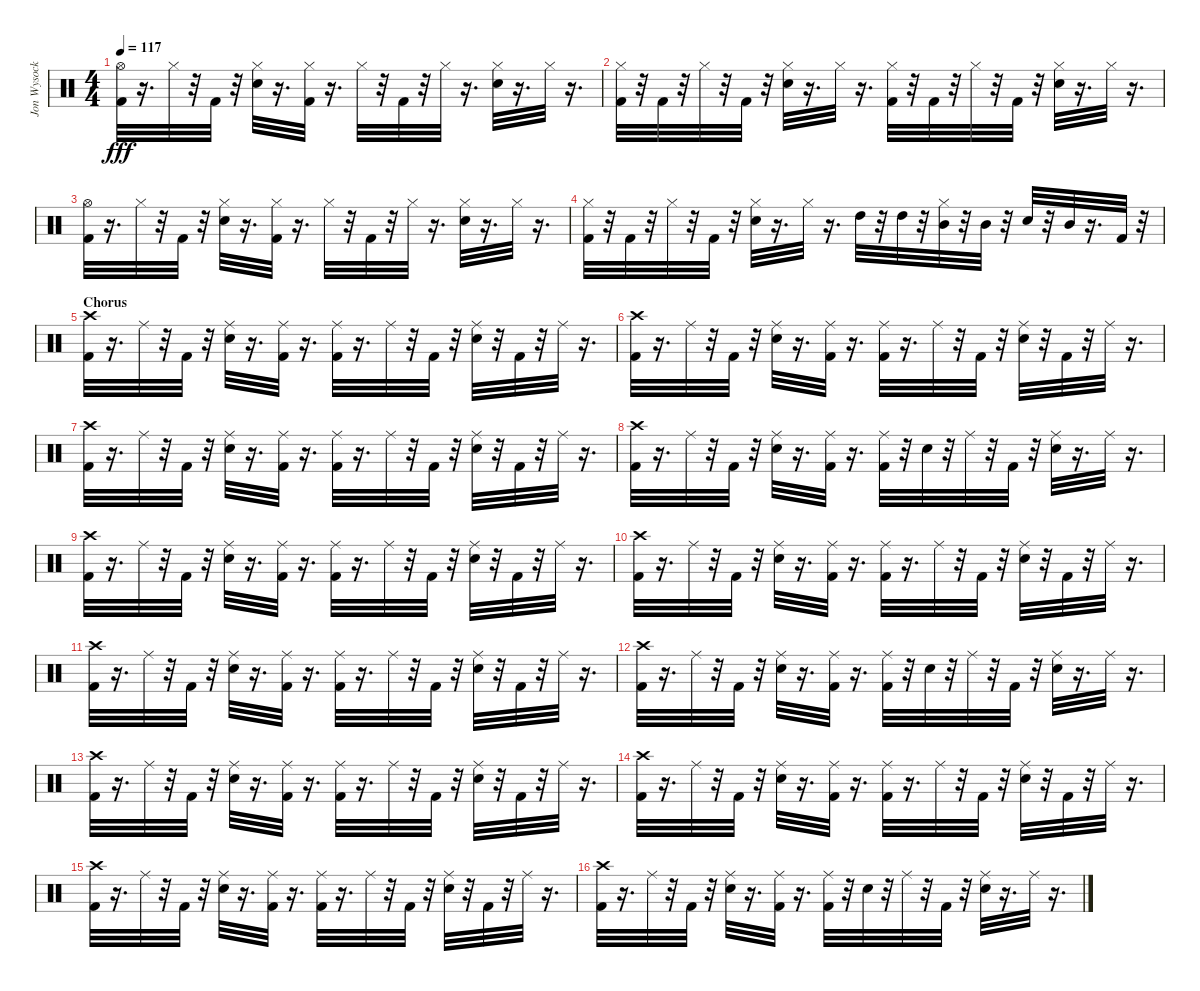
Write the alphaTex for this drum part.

\track ("Jon Wysocki - Drums" "Jon Wysock") {instrument percussion}
\staff {score}
\articulation defaults
\ts (4 4)
\tempo 117
\clef neutral
\ks c
("Kick (hit) 2" "Hi-Hat (open)").32{dy fff} r.16{d} "Hi-Hat (closed)".32 r.32 "Kick (hit) 2".32 r.32 ("Electric Snare (hit)" "Hi-Hat (closed)").32 r.16{d} ("Hi-Hat (closed)" "Kick (hit) 2").32 r.16{d} "Hi-Hat (closed)".32 r.32 "Kick (hit) 2".32 r.32 "Hi-Hat (closed)".32 r.16{d} ("Electric Snare (hit)" "Hi-Hat (closed)").32 r.16{d} "Hi-Hat (closed)".32 r.16{d} |
("Hi-Hat (closed)" "Kick (hit) 2").32 r.32 "Kick (hit) 2".32 r.32 "Hi-Hat (closed)".32 r.32 "Kick (hit) 2".32 r.32 ("Hi-Hat (closed)" "Electric Snare (hit)").32 r.16{d} "Hi-Hat (closed)".32 r.16{d} ("Hi-Hat (closed)" "Kick (hit) 2").32 r.32 "Kick (hit) 2".32 r.32 "Hi-Hat (closed)".32 r.32 "Kick (hit) 2".32 r.32 ("Hi-Hat (closed)" "Electric Snare (hit)").32 r.16{d} "Hi-Hat (closed)".32 r.16{d} |
("Kick (hit) 2" "Hi-Hat (open)").32 r.16{d} "Hi-Hat (closed)".32 r.32 "Kick (hit) 2".32 r.32 ("Electric Snare (hit)" "Hi-Hat (closed)").32 r.16{d} ("Hi-Hat (closed)" "Kick (hit) 2").32 r.16{d} "Hi-Hat (closed)".32 r.32 "Kick (hit) 2".32 r.32 "Hi-Hat (closed)".32 r.16{d} ("Electric Snare (hit)" "Hi-Hat (closed)").32 r.16{d} "Hi-Hat (closed)".32 r.16{d} |
("Hi-Hat (closed)" "Kick (hit) 2").32 r.32 "Kick (hit) 2".32 r.32 "Hi-Hat (closed)".32 r.32 "Kick (hit) 2".32 r.32 ("Hi-Hat (closed)" "Electric Snare (hit)").32 r.16{d} "Hi-Hat (closed)".32 r.16{d} "High Tom (hit)".32 r.32 "High Tom (hit)".32 r.32 ("Hi-Hat (closed)" "Mid Tom (hit)").32 r.32 "Mid Tom (hit)".32 r.32 "Electric Snare (hit)".32 r.32 "Mid Tom (hit)".32 r.16{d} "Kick (hit) 2".32 r.32 |
\section ("" "Chorus")
("Kick (hit) 2" "Crash high (hit)").32 r.16{d} "Ride (middle)".32 r.32 "Kick (hit) 2".32 r.32 ("Ride (middle)" "Electric Snare (hit)").32 r.16{d} ("Ride (middle)" "Kick (hit) 2").32 r.16{d} ("Ride (middle)" "Kick (hit) 2").32 r.16{d} "Ride (middle)".32 r.32 "Kick (hit) 2".32 r.32 ("Ride (middle)" "Electric Snare (hit)").32 r.32 "Kick (hit) 2".32 r.32 "Ride (middle)".32 r.16{d} |
("Crash high (hit)" "Kick (hit) 2").32 r.16{d} "Ride (middle)".32 r.32 "Kick (hit) 2".32 r.32 ("Electric Snare (hit)" "Ride (middle)").32 r.16{d} ("Kick (hit) 2" "Ride (middle)").32 r.16{d} ("Kick (hit) 2" "Ride (middle)").32 r.16{d} "Ride (middle)".32 r.32 "Kick (hit) 2".32 r.32 ("Electric Snare (hit)" "Ride (middle)").32 r.32 "Kick (hit) 2".32 r.32 "Ride (middle)".32 r.16{d} |
("Crash high (hit)" "Kick (hit) 2").32 r.16{d} "Ride (middle)".32 r.32 "Kick (hit) 2".32 r.32 ("Electric Snare (hit)" "Ride (middle)").32 r.16{d} ("Kick (hit) 2" "Ride (middle)").32 r.16{d} ("Kick (hit) 2" "Ride (middle)").32 r.16{d} "Ride (middle)".32 r.32 "Kick (hit) 2".32 r.32 ("Electric Snare (hit)" "Ride (middle)").32 r.32 "Kick (hit) 2".32 r.32 "Ride (middle)".32 r.16{d} |
("Crash high (hit)" "Kick (hit) 2").32 r.16{d} "Ride (middle)".32 r.32 "Kick (hit) 2".32 r.32 ("Ride (middle)" "Electric Snare (hit)").32 r.16{d} ("Ride (middle)" "Kick (hit) 2").32 r.16{d} ("Ride (middle)" "Kick (hit) 2").32 r.32 "Electric Snare (hit)".32 r.32 "Ride (middle)".32 r.32 "Kick (hit) 2".32 r.32 ("Ride (middle)" "Electric Snare (hit)").32 r.16{d} "Ride (middle)".32 r.16{d} |
("Kick (hit) 2" "Crash high (hit)").32 r.16{d} "Ride (middle)".32 r.32 "Kick (hit) 2".32 r.32 ("Ride (middle)" "Electric Snare (hit)").32 r.16{d} ("Ride (middle)" "Kick (hit) 2").32 r.16{d} ("Ride (middle)" "Kick (hit) 2").32 r.16{d} "Ride (middle)".32 r.32 "Kick (hit) 2".32 r.32 ("Ride (middle)" "Electric Snare (hit)").32 r.32 "Kick (hit) 2".32 r.32 "Ride (middle)".32 r.16{d} |
("Crash high (hit)" "Kick (hit) 2").32 r.16{d} "Ride (middle)".32 r.32 "Kick (hit) 2".32 r.32 ("Electric Snare (hit)" "Ride (middle)").32 r.16{d} ("Kick (hit) 2" "Ride (middle)").32 r.16{d} ("Kick (hit) 2" "Ride (middle)").32 r.16{d} "Ride (middle)".32 r.32 "Kick (hit) 2".32 r.32 ("Electric Snare (hit)" "Ride (middle)").32 r.32 "Kick (hit) 2".32 r.32 "Ride (middle)".32 r.16{d} |
("Crash high (hit)" "Kick (hit) 2").32 r.16{d} "Ride (middle)".32 r.32 "Kick (hit) 2".32 r.32 ("Electric Snare (hit)" "Ride (middle)").32 r.16{d} ("Kick (hit) 2" "Ride (middle)").32 r.16{d} ("Kick (hit) 2" "Ride (middle)").32 r.16{d} "Ride (middle)".32 r.32 "Kick (hit) 2".32 r.32 ("Electric Snare (hit)" "Ride (middle)").32 r.32 "Kick (hit) 2".32 r.32 "Ride (middle)".32 r.16{d} |
("Crash high (hit)" "Kick (hit) 2").32 r.16{d} "Ride (middle)".32 r.32 "Kick (hit) 2".32 r.32 ("Ride (middle)" "Electric Snare (hit)").32 r.16{d} ("Ride (middle)" "Kick (hit) 2").32 r.16{d} ("Ride (middle)" "Kick (hit) 2").32 r.32 "Electric Snare (hit)".32 r.32 "Ride (middle)".32 r.32 "Kick (hit) 2".32 r.32 ("Ride (middle)" "Electric Snare (hit)").32 r.16{d} "Ride (middle)".32 r.16{d} |
("Kick (hit) 2" "Crash high (hit)").32 r.16{d} "Ride (middle)".32 r.32 "Kick (hit) 2".32 r.32 ("Ride (middle)" "Electric Snare (hit)").32 r.16{d} ("Ride (middle)" "Kick (hit) 2").32 r.16{d} ("Ride (middle)" "Kick (hit) 2").32 r.16{d} "Ride (middle)".32 r.32 "Kick (hit) 2".32 r.32 ("Ride (middle)" "Electric Snare (hit)").32 r.32 "Kick (hit) 2".32 r.32 "Ride (middle)".32 r.16{d} |
("Crash high (hit)" "Kick (hit) 2").32 r.16{d} "Ride (middle)".32 r.32 "Kick (hit) 2".32 r.32 ("Electric Snare (hit)" "Ride (middle)").32 r.16{d} ("Kick (hit) 2" "Ride (middle)").32 r.16{d} ("Kick (hit) 2" "Ride (middle)").32 r.16{d} "Ride (middle)".32 r.32 "Kick (hit) 2".32 r.32 ("Electric Snare (hit)" "Ride (middle)").32 r.32 "Kick (hit) 2".32 r.32 "Ride (middle)".32 r.16{d} |
("Crash high (hit)" "Kick (hit) 2").32 r.16{d} "Ride (middle)".32 r.32 "Kick (hit) 2".32 r.32 ("Electric Snare (hit)" "Ride (middle)").32 r.16{d} ("Kick (hit) 2" "Ride (middle)").32 r.16{d} ("Kick (hit) 2" "Ride (middle)").32 r.16{d} "Ride (middle)".32 r.32 "Kick (hit) 2".32 r.32 ("Electric Snare (hit)" "Ride (middle)").32 r.32 "Kick (hit) 2".32 r.32 "Ride (middle)".32 r.16{d} |
("Crash high (hit)" "Kick (hit) 2").32 r.16{d} "Ride (middle)".32 r.32 "Kick (hit) 2".32 r.32 ("Ride (middle)" "Electric Snare (hit)").32 r.16{d} ("Ride (middle)" "Kick (hit) 2").32 r.16{d} ("Ride (middle)" "Kick (hit) 2").32 r.32 "Electric Snare (hit)".32 r.32 "Ride (middle)".32 r.32 "Kick (hit) 2".32 r.32 ("Ride (middle)" "Electric Snare (hit)").32 r.16{d} "Ride (middle)".32 r.16{d}
